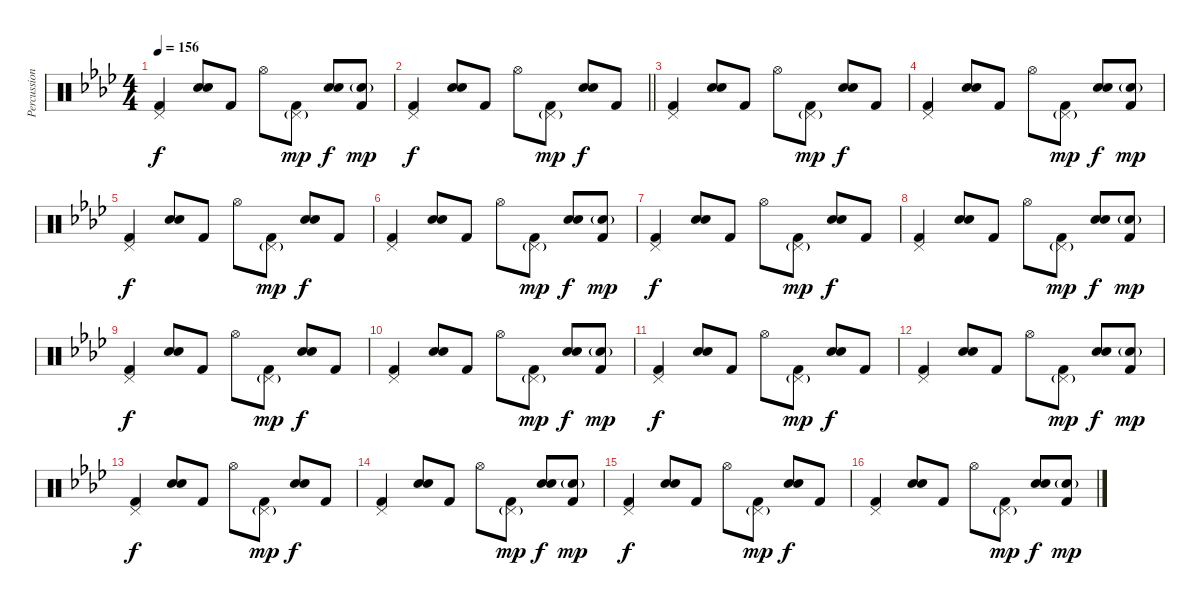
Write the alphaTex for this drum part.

\track ("Percussion" "Percussion") {instrument percussion}
\staff {score}
\articulation defaults
\ts (4 4)
\tempo 156
\clef neutral
\ks fminor
("Pedal Hi-Hat (hit)" "Kick (hit) 2").4{dy f} ("Hand Clap (hit)" "Electric Snare (hit)").8 "Kick (hit) 2".8 "Hi-Hat (open)".8 ("Pedal Hi-Hat (hit)"{g} "Kick (hit) 2").8{dy mp} ("Hand Clap (hit)" "Electric Snare (hit)").8{dy f} ("Hand Clap (hit)"{g} "Kick (hit) 2").8{dy mp} |
\barLineRight lightlight
("Pedal Hi-Hat (hit)" "Kick (hit) 2").4{dy f} ("Hand Clap (hit)" "Electric Snare (hit)").8 "Kick (hit) 2".8 "Hi-Hat (open)".8 ("Pedal Hi-Hat (hit)"{g} "Kick (hit) 2").8{dy mp} ("Hand Clap (hit)" "Electric Snare (hit)").8{dy f} "Kick (hit) 2".8 |
("Pedal Hi-Hat (hit)" "Kick (hit) 2").4 ("Hand Clap (hit)" "Electric Snare (hit)").8 "Kick (hit) 2".8 "Hi-Hat (open)".8 ("Pedal Hi-Hat (hit)"{g} "Kick (hit) 2").8{dy mp} ("Hand Clap (hit)" "Electric Snare (hit)").8{dy f} "Kick (hit) 2".8 |
("Pedal Hi-Hat (hit)" "Kick (hit) 2").4 ("Hand Clap (hit)" "Electric Snare (hit)").8 "Kick (hit) 2".8 "Hi-Hat (open)".8 ("Pedal Hi-Hat (hit)"{g} "Kick (hit) 2").8{dy mp} ("Hand Clap (hit)" "Electric Snare (hit)").8{dy f} ("Hand Clap (hit)"{g} "Kick (hit) 2").8{dy mp} |
("Pedal Hi-Hat (hit)" "Kick (hit) 2").4{dy f} ("Hand Clap (hit)" "Electric Snare (hit)").8 "Kick (hit) 2".8 "Hi-Hat (open)".8 ("Pedal Hi-Hat (hit)"{g} "Kick (hit) 2").8{dy mp} ("Hand Clap (hit)" "Electric Snare (hit)").8{dy f} "Kick (hit) 2".8 |
("Pedal Hi-Hat (hit)" "Kick (hit) 2").4 ("Hand Clap (hit)" "Electric Snare (hit)").8 "Kick (hit) 2".8 "Hi-Hat (open)".8 ("Pedal Hi-Hat (hit)"{g} "Kick (hit) 2").8{dy mp} ("Hand Clap (hit)" "Electric Snare (hit)").8{dy f} ("Hand Clap (hit)"{g} "Kick (hit) 2").8{dy mp} |
("Pedal Hi-Hat (hit)" "Kick (hit) 2").4{dy f} ("Hand Clap (hit)" "Electric Snare (hit)").8 "Kick (hit) 2".8 "Hi-Hat (open)".8 ("Pedal Hi-Hat (hit)"{g} "Kick (hit) 2").8{dy mp} ("Hand Clap (hit)" "Electric Snare (hit)").8{dy f} "Kick (hit) 2".8 |
("Pedal Hi-Hat (hit)" "Kick (hit) 2").4 ("Hand Clap (hit)" "Electric Snare (hit)").8 "Kick (hit) 2".8 "Hi-Hat (open)".8 ("Pedal Hi-Hat (hit)"{g} "Kick (hit) 2").8{dy mp} ("Hand Clap (hit)" "Electric Snare (hit)").8{dy f} ("Hand Clap (hit)"{g} "Kick (hit) 2").8{dy mp} |
("Pedal Hi-Hat (hit)" "Kick (hit) 2").4{dy f} ("Hand Clap (hit)" "Electric Snare (hit)").8 "Kick (hit) 2".8 "Hi-Hat (open)".8 ("Pedal Hi-Hat (hit)"{g} "Kick (hit) 2").8{dy mp} ("Hand Clap (hit)" "Electric Snare (hit)").8{dy f} "Kick (hit) 2".8 |
("Pedal Hi-Hat (hit)" "Kick (hit) 2").4 ("Hand Clap (hit)" "Electric Snare (hit)").8 "Kick (hit) 2".8 "Hi-Hat (open)".8 ("Pedal Hi-Hat (hit)"{g} "Kick (hit) 2").8{dy mp} ("Hand Clap (hit)" "Electric Snare (hit)").8{dy f} ("Hand Clap (hit)"{g} "Kick (hit) 2").8{dy mp} |
("Pedal Hi-Hat (hit)" "Kick (hit) 2").4{dy f} ("Hand Clap (hit)" "Electric Snare (hit)").8 "Kick (hit) 2".8 "Hi-Hat (open)".8 ("Pedal Hi-Hat (hit)"{g} "Kick (hit) 2").8{dy mp} ("Hand Clap (hit)" "Electric Snare (hit)").8{dy f} "Kick (hit) 2".8 |
("Pedal Hi-Hat (hit)" "Kick (hit) 2").4 ("Hand Clap (hit)" "Electric Snare (hit)").8 "Kick (hit) 2".8 "Hi-Hat (open)".8 ("Pedal Hi-Hat (hit)"{g} "Kick (hit) 2").8{dy mp} ("Hand Clap (hit)" "Electric Snare (hit)").8{dy f} ("Hand Clap (hit)"{g} "Kick (hit) 2").8{dy mp} |
("Pedal Hi-Hat (hit)" "Kick (hit) 2").4{dy f} ("Hand Clap (hit)" "Electric Snare (hit)").8 "Kick (hit) 2".8 "Hi-Hat (open)".8 ("Pedal Hi-Hat (hit)"{g} "Kick (hit) 2").8{dy mp} ("Hand Clap (hit)" "Electric Snare (hit)").8{dy f} "Kick (hit) 2".8 |
("Pedal Hi-Hat (hit)" "Kick (hit) 2").4 ("Hand Clap (hit)" "Electric Snare (hit)").8 "Kick (hit) 2".8 "Hi-Hat (open)".8 ("Pedal Hi-Hat (hit)"{g} "Kick (hit) 2").8{dy mp} ("Hand Clap (hit)" "Electric Snare (hit)").8{dy f} ("Hand Clap (hit)"{g} "Kick (hit) 2").8{dy mp} |
("Pedal Hi-Hat (hit)" "Kick (hit) 2").4{dy f} ("Hand Clap (hit)" "Electric Snare (hit)").8 "Kick (hit) 2".8 "Hi-Hat (open)".8 ("Pedal Hi-Hat (hit)"{g} "Kick (hit) 2").8{dy mp} ("Hand Clap (hit)" "Electric Snare (hit)").8{dy f} "Kick (hit) 2".8 |
("Pedal Hi-Hat (hit)" "Kick (hit) 2").4 ("Hand Clap (hit)" "Electric Snare (hit)").8 "Kick (hit) 2".8 "Hi-Hat (open)".8 ("Pedal Hi-Hat (hit)"{g} "Kick (hit) 2").8{dy mp} ("Hand Clap (hit)" "Electric Snare (hit)").8{dy f} ("Hand Clap (hit)"{g} "Kick (hit) 2").8{dy mp}
